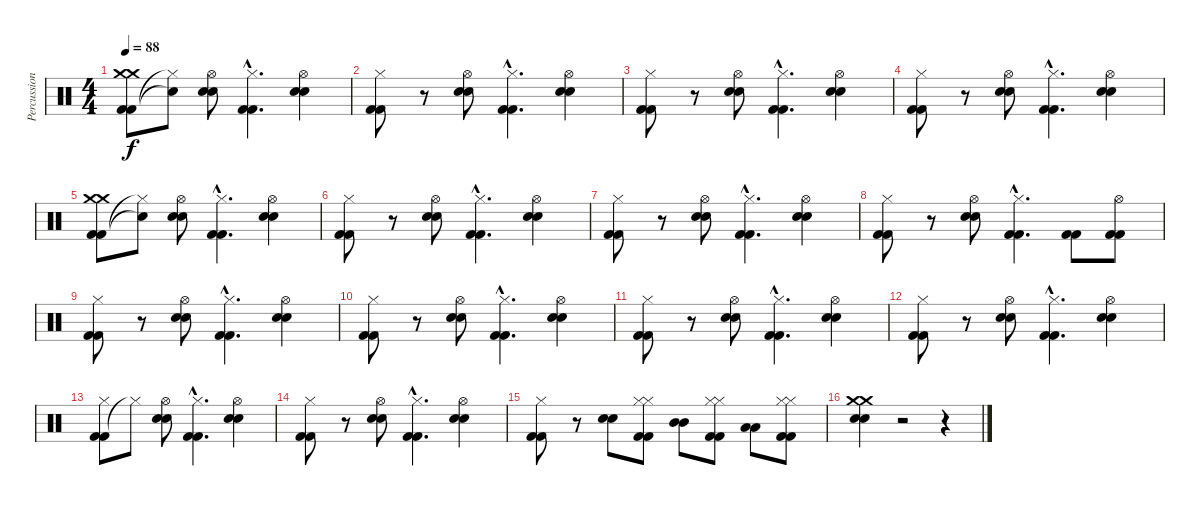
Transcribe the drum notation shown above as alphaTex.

\track ("Percussion" "Percussion") {instrument percussion}
\staff {score}
\articulation defaults
\ts (4 4)
\tempo 88
\clef neutral
\ks c
("Kick (hit) 2" "Kick (hit) 2" "Crash medium (hit)" "Crash medium (hit)").8{dy f} ("Snare (hit)"{t} "Hi-Hat (closed)"{t}).8 ("Snare (hit) 2" "Snare (hit) 2" "Hi-Hat (open)").8 ("Kick (hit) 2"{hac} "Kick (hit) 2"{hac} "Hi-Hat (closed)"{hac}).4{d} ("Snare (hit) 2" "Snare (hit) 2" "Hi-Hat (open)").4 |
("Kick (hit) 2" "Kick (hit) 2" "Hi-Hat (closed)").8 r.8 ("Snare (hit) 2" "Snare (hit) 2" "Hi-Hat (open)").8 ("Kick (hit) 2"{hac} "Kick (hit) 2"{hac} "Hi-Hat (closed)"{hac}).4{d} ("Snare (hit) 2" "Snare (hit) 2" "Hi-Hat (open)").4 |
("Kick (hit) 2" "Kick (hit) 2" "Hi-Hat (closed)").8 r.8 ("Snare (hit) 2" "Snare (hit) 2" "Hi-Hat (open)").8 ("Kick (hit) 2"{hac} "Kick (hit) 2"{hac} "Hi-Hat (closed)"{hac}).4{d} ("Snare (hit) 2" "Snare (hit) 2" "Hi-Hat (open)").4 |
("Kick (hit) 2" "Kick (hit) 2" "Hi-Hat (closed)").8 r.8 ("Snare (hit) 2" "Snare (hit) 2" "Hi-Hat (open)").8 ("Kick (hit) 2"{hac} "Kick (hit) 2"{hac} "Hi-Hat (closed)"{hac}).4{d} ("Snare (hit) 2" "Snare (hit) 2" "Hi-Hat (open)").4 |
("Kick (hit) 2" "Kick (hit) 2" "Crash medium (hit)" "Crash medium (hit)").8 ("Snare (hit)"{t} "Hi-Hat (closed)"{t}).8 ("Snare (hit) 2" "Snare (hit) 2" "Hi-Hat (open)").8 ("Kick (hit) 2"{hac} "Kick (hit) 2"{hac} "Hi-Hat (closed)"{hac}).4{d} ("Snare (hit) 2" "Snare (hit) 2" "Hi-Hat (open)").4 |
("Kick (hit) 2" "Kick (hit) 2" "Hi-Hat (closed)").8 r.8 ("Snare (hit) 2" "Snare (hit) 2" "Hi-Hat (open)").8 ("Kick (hit) 2"{hac} "Kick (hit) 2"{hac} "Hi-Hat (closed)"{hac}).4{d} ("Snare (hit) 2" "Snare (hit) 2" "Hi-Hat (open)").4 |
("Kick (hit) 2" "Kick (hit) 2" "Hi-Hat (closed)").8 r.8 ("Snare (hit) 2" "Snare (hit) 2" "Hi-Hat (open)").8 ("Kick (hit) 2"{hac} "Kick (hit) 2"{hac} "Hi-Hat (closed)"{hac}).4{d} ("Snare (hit) 2" "Snare (hit) 2" "Hi-Hat (open)").4 |
("Kick (hit) 2" "Kick (hit) 2" "Hi-Hat (closed)").8 r.8 ("Snare (hit) 2" "Snare (hit) 2" "Hi-Hat (open)").8 ("Kick (hit) 2"{hac} "Kick (hit) 2"{hac} "Hi-Hat (closed)"{hac}).4{d} ("Kick (hit) 2" "Kick (hit) 2").8 ("Kick (hit) 2" "Kick (hit) 2" "Hi-Hat (open)").8 |
("Kick (hit) 2" "Kick (hit) 2" "Hi-Hat (closed)").8 r.8 ("Snare (hit) 2" "Snare (hit) 2" "Hi-Hat (open)").8 ("Kick (hit) 2"{hac} "Kick (hit) 2"{hac} "Hi-Hat (closed)"{hac}).4{d} ("Snare (hit) 2" "Snare (hit) 2" "Hi-Hat (open)").4 |
("Kick (hit) 2" "Kick (hit) 2" "Hi-Hat (closed)").8 r.8 ("Snare (hit) 2" "Snare (hit) 2" "Hi-Hat (open)").8 ("Kick (hit) 2"{hac} "Kick (hit) 2"{hac} "Hi-Hat (closed)"{hac}).4{d} ("Snare (hit) 2" "Snare (hit) 2" "Hi-Hat (open)").4 |
("Kick (hit) 2" "Kick (hit) 2" "Hi-Hat (closed)").8 r.8 ("Snare (hit) 2" "Snare (hit) 2" "Hi-Hat (open)").8 ("Kick (hit) 2"{hac} "Kick (hit) 2"{hac} "Hi-Hat (closed)"{hac}).4{d} ("Snare (hit) 2" "Snare (hit) 2" "Hi-Hat (open)").4 |
("Kick (hit) 2" "Kick (hit) 2" "Hi-Hat (closed)").8 r.8 ("Snare (hit) 2" "Snare (hit) 2" "Hi-Hat (open)").8 ("Kick (hit) 2"{hac} "Kick (hit) 2"{hac} "Hi-Hat (closed)"{hac}).4{d} ("Snare (hit) 2" "Snare (hit) 2" "Hi-Hat (open)").4 |
("Kick (hit) 2" "Kick (hit) 2" "Hi-Hat (closed)").8 "Hi-Hat (closed)"{t}.8 ("Snare (hit) 2" "Snare (hit) 2" "Hi-Hat (open)").8 ("Kick (hit) 2"{hac} "Kick (hit) 2"{hac} "Hi-Hat (closed)"{hac}).4{d} ("Snare (hit) 2" "Snare (hit) 2" "Hi-Hat (open)").4 |
("Kick (hit) 2" "Kick (hit) 2" "Hi-Hat (closed)").8 r.8 ("Snare (hit) 2" "Snare (hit) 2" "Hi-Hat (open)").8 ("Kick (hit) 2"{hac} "Kick (hit) 2"{hac} "Hi-Hat (closed)"{hac}).4{d} ("Snare (hit) 2" "Snare (hit) 2" "Hi-Hat (open)").4 |
("Kick (hit) 2" "Kick (hit) 2" "Hi-Hat (closed)").8 r.8 ("Snare (hit) 2" "Snare (hit) 2").8 ("Kick (hit) 2" "Kick (hit) 2" "Hi-Hat (closed)" "Hi-Hat (closed)").8 ("Mid Tom (hit)" "Mid Tom (hit)").8 ("Kick (hit) 2" "Kick (hit) 2" "Hi-Hat (closed)" "Hi-Hat (closed)").8 ("Low Tom (hit)" "Low Tom (hit)").8 ("Kick (hit) 2" "Kick (hit) 2" "Hi-Hat (closed)" "Hi-Hat (closed)").8 |
("Snare (hit) 2" "Snare (hit) 2" "Crash medium (hit)" "Crash medium (hit)").4 r.2 r.4
